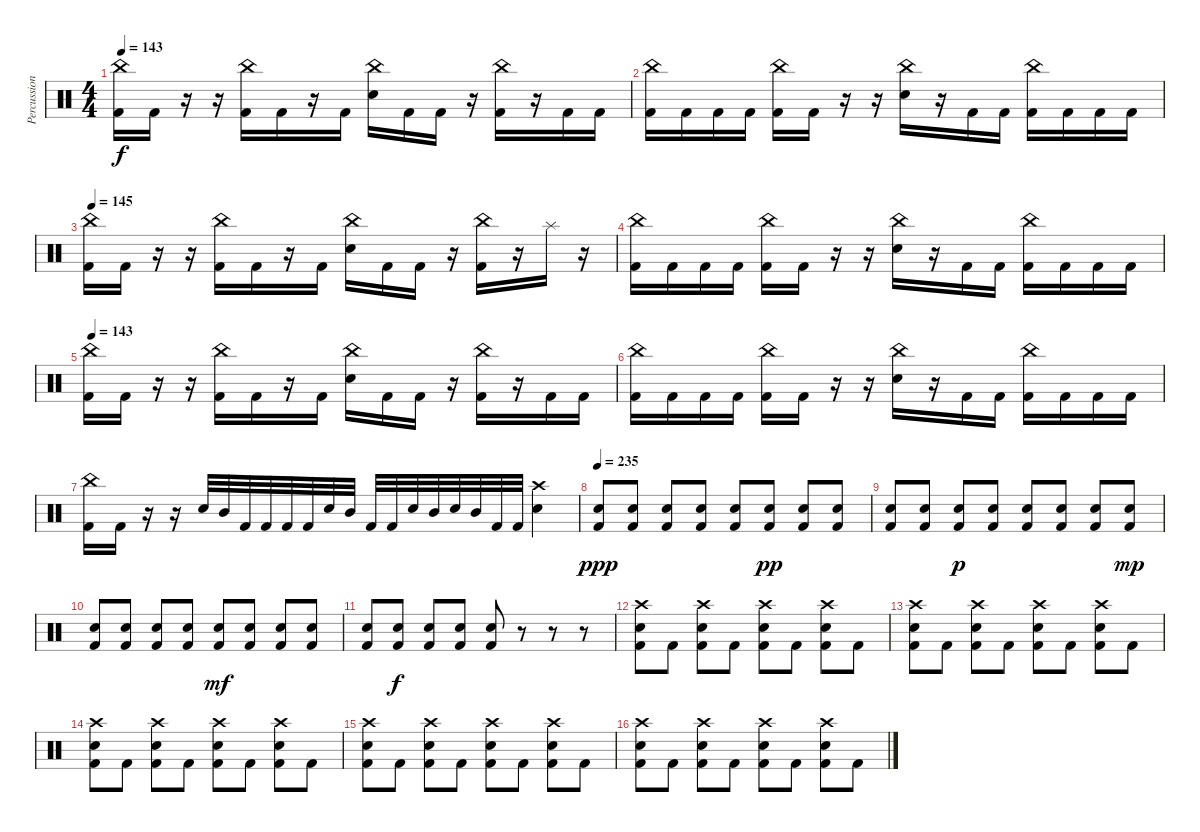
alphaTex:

\track ("Percussion" "Percussion") {instrument percussion}
\staff {score}
\articulation defaults
\ts (4 4)
\tempo 143
\clef neutral
\ks c
("China (hit)" "Kick (hit) 2").16{dy f} "Kick (hit) 2".16 r.16 r.16 ("China (hit)" "Kick (hit) 2").16 "Kick (hit) 2".16 r.16 "Kick (hit) 2".16 ("China (hit)" "Snare (hit) 2").16 "Kick (hit) 2".16 "Kick (hit) 2".16 r.16 ("China (hit)" "Kick (hit) 2").16 r.16 "Kick (hit) 2".16 "Kick (hit) 2".16 |
("China (hit)" "Kick (hit) 2").16 "Kick (hit) 2".16 "Kick (hit) 2".16 "Kick (hit) 2".16 ("China (hit)" "Kick (hit) 2").16 "Kick (hit) 2".16 r.16 r.16 ("China (hit)" "Snare (hit) 2").16 r.16 "Kick (hit) 2".16 "Kick (hit) 2".16 ("China (hit)" "Kick (hit) 2").16 "Kick (hit) 2".16 "Kick (hit) 2".16 "Kick (hit) 2".16 |
\tempo 145
("China (hit)" "Kick (hit) 2").16 "Kick (hit) 2".16 r.16 r.16 ("China (hit)" "Kick (hit) 2").16 "Kick (hit) 2".16 r.16 "Kick (hit) 2".16 ("China (hit)" "Snare (hit) 2").16 "Kick (hit) 2".16 "Kick (hit) 2".16 r.16 ("China (hit)" "Kick (hit) 2").16 r.16 "Splash (hit)".16 r.16 |
("China (hit)" "Kick (hit) 2").16 "Kick (hit) 2".16 "Kick (hit) 2".16 "Kick (hit) 2".16 ("China (hit)" "Kick (hit) 2").16 "Kick (hit) 2".16 r.16 r.16 ("China (hit)" "Snare (hit) 2").16 r.16 "Kick (hit) 2".16 "Kick (hit) 2".16 ("China (hit)" "Kick (hit) 2").16 "Kick (hit) 2".16 "Kick (hit) 2".16 "Kick (hit) 2".16 |
\tempo 143
("China (hit)" "Kick (hit) 2").16 "Kick (hit) 2".16 r.16 r.16 ("China (hit)" "Kick (hit) 2").16 "Kick (hit) 2".16 r.16 "Kick (hit) 2".16 ("China (hit)" "Snare (hit) 2").16 "Kick (hit) 2".16 "Kick (hit) 2".16 r.16 ("China (hit)" "Kick (hit) 2").16 r.16 "Kick (hit) 2".16 "Kick (hit) 2".16 |
("China (hit)" "Kick (hit) 2").16 "Kick (hit) 2".16 "Kick (hit) 2".16 "Kick (hit) 2".16 ("China (hit)" "Kick (hit) 2").16 "Kick (hit) 2".16 r.16 r.16 ("China (hit)" "Snare (hit) 2").16 r.16 "Kick (hit) 2".16 "Kick (hit) 2".16 ("China (hit)" "Kick (hit) 2").16 "Kick (hit) 2".16 "Kick (hit) 2".16 "Kick (hit) 2".16 |
("China (hit)" "Kick (hit) 2").16 "Kick (hit) 2".16 r.16 r.16 "Snare (hit) 2".32 "Mid Tom (hit)".32 "Kick (hit) 2".32 "Kick (hit) 2".32 "Kick (hit) 2".32 "Kick (hit) 2".32 "Snare (hit) 2".32 "Mid Tom (hit)".32 "Kick (hit) 2".32 "Kick (hit) 2".32 "Snare (hit) 2".32 "Mid Tom (hit)".32 "Snare (hit) 2".32 "Mid Tom (hit)".32 "Kick (hit) 2".32 "Kick (hit) 2".32 ("Crash high (hit)" "Snare (hit) 2").4 |
\tempo 235
("Snare (hit) 2" "Kick (hit) 2").8{dy ppp} ("Snare (hit) 2" "Kick (hit) 2").8 ("Snare (hit) 2" "Kick (hit) 2").8 ("Snare (hit) 2" "Kick (hit) 2").8 ("Snare (hit) 2" "Kick (hit) 2").8 ("Snare (hit) 2" "Kick (hit) 2").8{dy pp} ("Snare (hit) 2" "Kick (hit) 2").8 ("Snare (hit) 2" "Kick (hit) 2").8 |
("Snare (hit) 2" "Kick (hit) 2").8 ("Snare (hit) 2" "Kick (hit) 2").8 ("Snare (hit) 2" "Kick (hit) 2").8{dy p} ("Snare (hit) 2" "Kick (hit) 2").8 ("Snare (hit) 2" "Kick (hit) 2").8 ("Snare (hit) 2" "Kick (hit) 2").8 ("Snare (hit) 2" "Kick (hit) 2").8 ("Snare (hit) 2" "Kick (hit) 2").8{dy mp} |
("Snare (hit) 2" "Kick (hit) 2").8 ("Snare (hit) 2" "Kick (hit) 2").8 ("Snare (hit) 2" "Kick (hit) 2").8 ("Snare (hit) 2" "Kick (hit) 2").8 ("Snare (hit) 2" "Kick (hit) 2").8{dy mf} ("Snare (hit) 2" "Kick (hit) 2").8 ("Snare (hit) 2" "Kick (hit) 2").8 ("Snare (hit) 2" "Kick (hit) 2").8 |
("Snare (hit) 2" "Kick (hit) 2").8 ("Snare (hit) 2" "Kick (hit) 2").8{dy f} ("Snare (hit) 2" "Kick (hit) 2").8 ("Snare (hit) 2" "Kick (hit) 2").8 ("Snare (hit) 2" "Kick (hit) 2").8 r.8 r.8 r.8 |
("Crash high (hit)" "Snare (hit) 2" "Kick (hit) 2").8 "Kick (hit) 2".8 ("Crash high (hit)" "Snare (hit) 2" "Kick (hit) 2").8 "Kick (hit) 2".8 ("Crash high (hit)" "Snare (hit) 2" "Kick (hit) 2").8 "Kick (hit) 2".8 ("Crash high (hit)" "Snare (hit) 2" "Kick (hit) 2").8 "Kick (hit) 2".8 |
("Crash high (hit)" "Snare (hit) 2" "Kick (hit) 2").8 "Kick (hit) 2".8 ("Crash high (hit)" "Snare (hit) 2" "Kick (hit) 2").8 "Kick (hit) 2".8 ("Crash high (hit)" "Snare (hit) 2" "Kick (hit) 2").8 "Kick (hit) 2".8 ("Crash high (hit)" "Snare (hit) 2" "Kick (hit) 2").8 "Kick (hit) 2".8 |
("Crash high (hit)" "Snare (hit) 2" "Kick (hit) 2").8 "Kick (hit) 2".8 ("Crash high (hit)" "Snare (hit) 2" "Kick (hit) 2").8 "Kick (hit) 2".8 ("Crash high (hit)" "Snare (hit) 2" "Kick (hit) 2").8 "Kick (hit) 2".8 ("Crash high (hit)" "Snare (hit) 2" "Kick (hit) 2").8 "Kick (hit) 2".8 |
("Crash high (hit)" "Snare (hit) 2" "Kick (hit) 2").8 "Kick (hit) 2".8 ("Crash high (hit)" "Snare (hit) 2" "Kick (hit) 2").8 "Kick (hit) 2".8 ("Crash high (hit)" "Snare (hit) 2" "Kick (hit) 2").8 "Kick (hit) 2".8 ("Crash high (hit)" "Snare (hit) 2" "Kick (hit) 2").8 "Kick (hit) 2".8 |
("Crash high (hit)" "Snare (hit) 2" "Kick (hit) 2").8 "Kick (hit) 2".8 ("Crash high (hit)" "Snare (hit) 2" "Kick (hit) 2").8 "Kick (hit) 2".8 ("Crash high (hit)" "Snare (hit) 2" "Kick (hit) 2").8 "Kick (hit) 2".8 ("Crash high (hit)" "Snare (hit) 2" "Kick (hit) 2").8 "Kick (hit) 2".8
